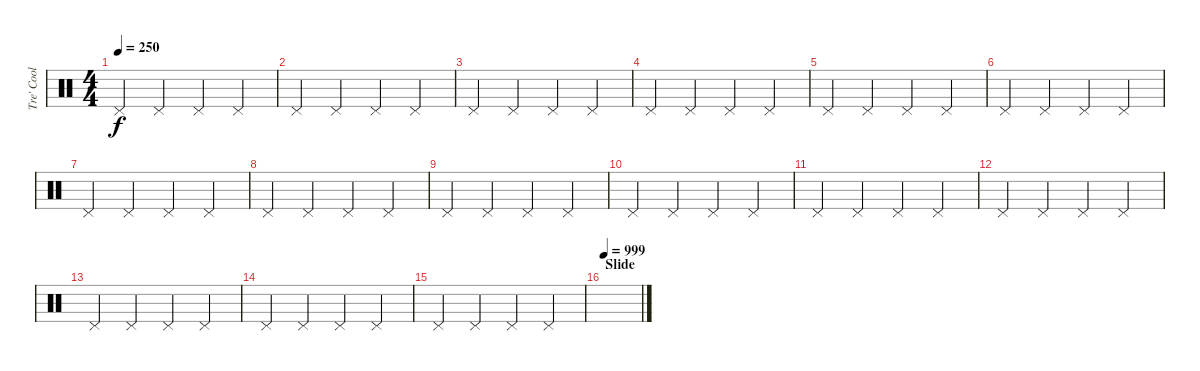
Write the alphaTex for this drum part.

\track ("Tre' Cool" "Tre' Cool") {instrument percussion}
\staff {score}
\articulation defaults
\ts (4 4)
\tempo 250
\clef neutral
\ks c "Pedal Hi-Hat (hit)".4{dy f} "Pedal Hi-Hat (hit)".4 "Pedal Hi-Hat (hit)".4 "Pedal Hi-Hat (hit)".4
|
"Pedal Hi-Hat (hit)".4 "Pedal Hi-Hat (hit)".4 "Pedal Hi-Hat (hit)".4 "Pedal Hi-Hat (hit)".4 |
"Pedal Hi-Hat (hit)".4 "Pedal Hi-Hat (hit)".4 "Pedal Hi-Hat (hit)".4 "Pedal Hi-Hat (hit)".4 |
"Pedal Hi-Hat (hit)".4 "Pedal Hi-Hat (hit)".4 "Pedal Hi-Hat (hit)".4 "Pedal Hi-Hat (hit)".4 |
"Pedal Hi-Hat (hit)".4 "Pedal Hi-Hat (hit)".4 "Pedal Hi-Hat (hit)".4 "Pedal Hi-Hat (hit)".4 |
"Pedal Hi-Hat (hit)".4 "Pedal Hi-Hat (hit)".4 "Pedal Hi-Hat (hit)".4 "Pedal Hi-Hat (hit)".4 |
"Pedal Hi-Hat (hit)".4 "Pedal Hi-Hat (hit)".4 "Pedal Hi-Hat (hit)".4 "Pedal Hi-Hat (hit)".4 |
"Pedal Hi-Hat (hit)".4 "Pedal Hi-Hat (hit)".4 "Pedal Hi-Hat (hit)".4 "Pedal Hi-Hat (hit)".4 |
"Pedal Hi-Hat (hit)".4 "Pedal Hi-Hat (hit)".4 "Pedal Hi-Hat (hit)".4 "Pedal Hi-Hat (hit)".4 |
"Pedal Hi-Hat (hit)".4 "Pedal Hi-Hat (hit)".4 "Pedal Hi-Hat (hit)".4 "Pedal Hi-Hat (hit)".4 |
"Pedal Hi-Hat (hit)".4 "Pedal Hi-Hat (hit)".4 "Pedal Hi-Hat (hit)".4 "Pedal Hi-Hat (hit)".4 |
"Pedal Hi-Hat (hit)".4 "Pedal Hi-Hat (hit)".4 "Pedal Hi-Hat (hit)".4 "Pedal Hi-Hat (hit)".4 |
"Pedal Hi-Hat (hit)".4 "Pedal Hi-Hat (hit)".4 "Pedal Hi-Hat (hit)".4 "Pedal Hi-Hat (hit)".4 |
"Pedal Hi-Hat (hit)".4 "Pedal Hi-Hat (hit)".4 "Pedal Hi-Hat (hit)".4 "Pedal Hi-Hat (hit)".4 |
"Pedal Hi-Hat (hit)".4 "Pedal Hi-Hat (hit)".4 "Pedal Hi-Hat (hit)".4 "Pedal Hi-Hat (hit)".4 |
\section ("" "Slide")
\tempo 999
